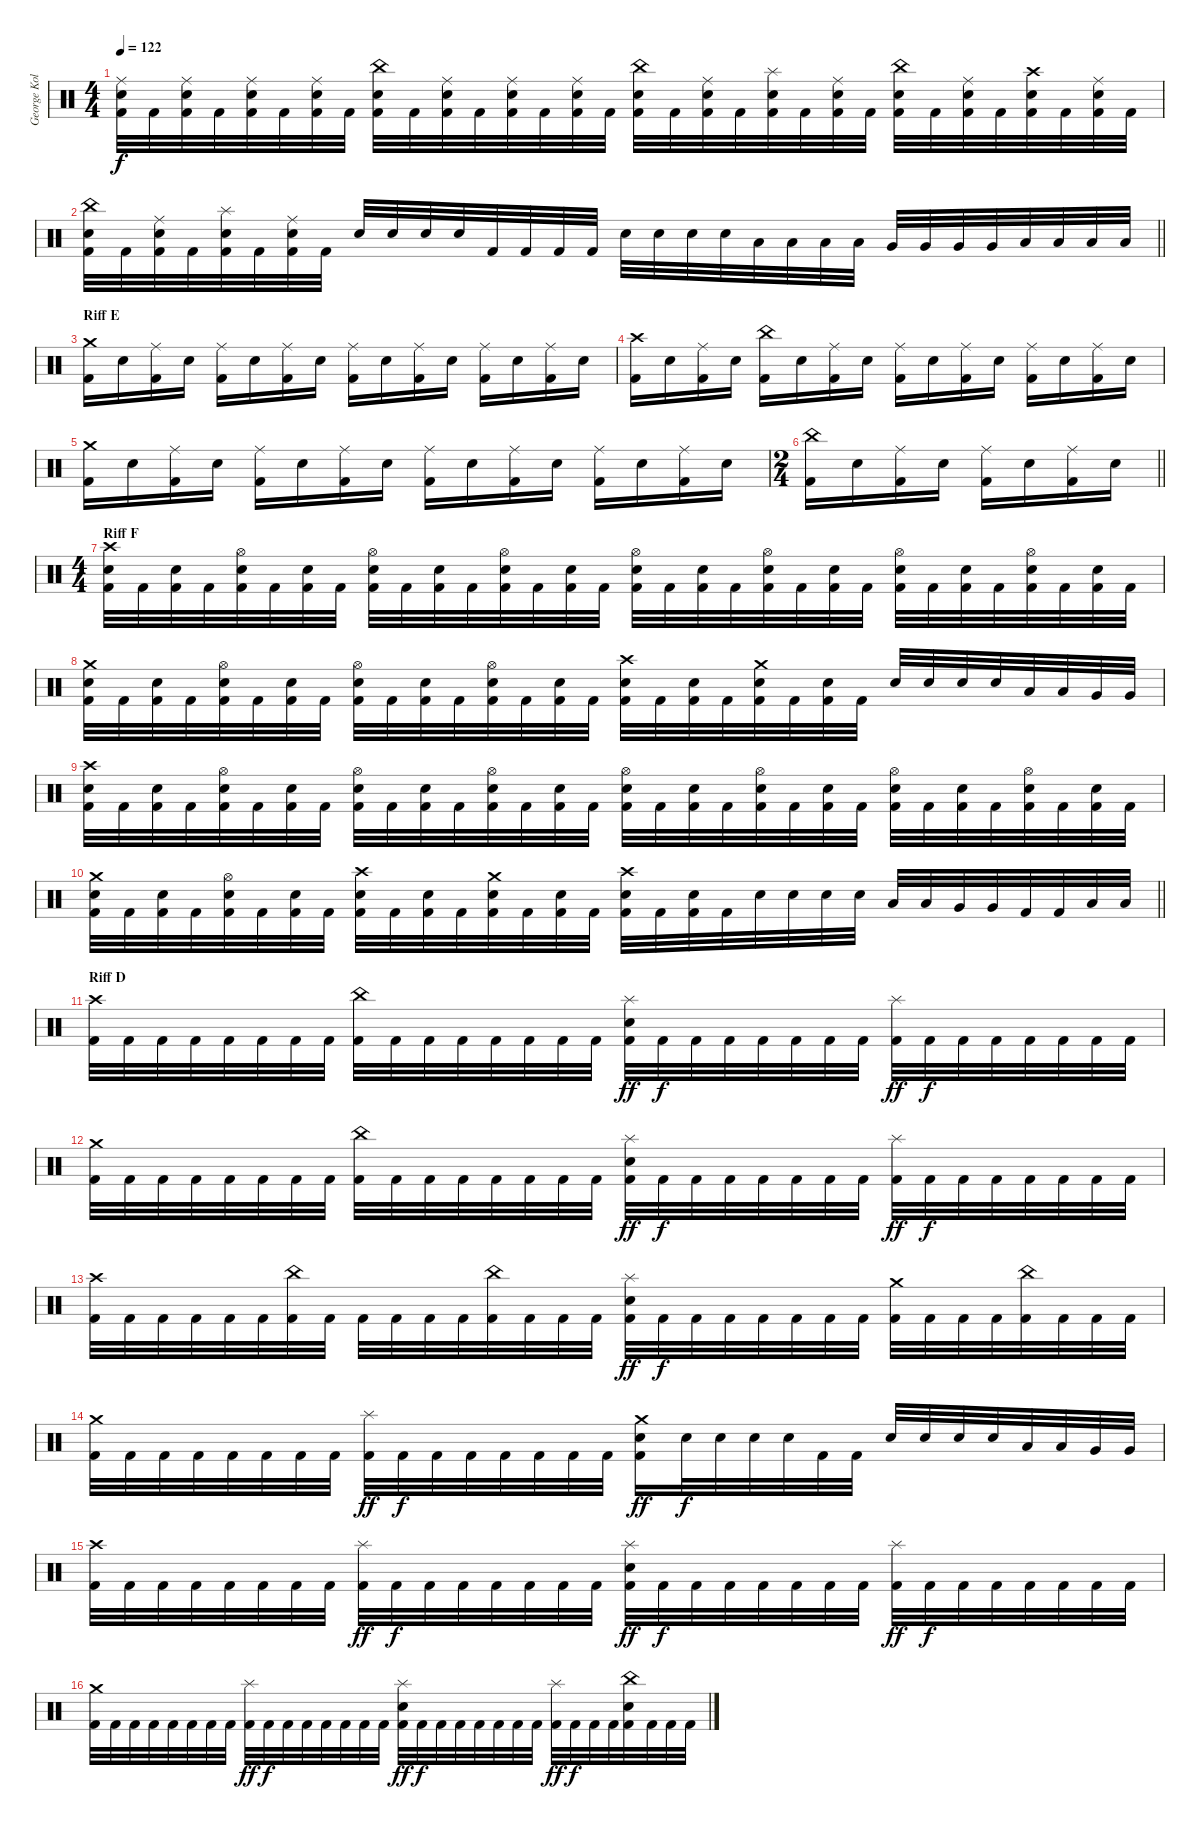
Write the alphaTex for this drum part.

\track ("George Kollias" "George Kol") {instrument percussion}
\staff {score}
\articulation defaults
\ts (4 4)
\tempo 122
\clef neutral
\ks c
("Ride (middle)" "Snare (hit) 2" "Kick (hit) 2").32{dy f} "Kick (hit) 2".32 ("Ride (middle)" "Snare (hit) 2" "Kick (hit) 2").32 "Kick (hit) 2".32 ("Ride (middle)" "Snare (hit) 2" "Kick (hit) 2").32 "Kick (hit) 2".32 ("Ride (middle)" "Snare (hit) 2" "Kick (hit) 2").32 "Kick (hit) 2".32 ("China (hit)" "Snare (hit) 2" "Kick (hit) 2").32 "Kick (hit) 2".32 ("Ride (middle)" "Snare (hit) 2" "Kick (hit) 2").32 "Kick (hit) 2".32 ("Ride (middle)" "Snare (hit) 2" "Kick (hit) 2").32 "Kick (hit) 2".32 ("Ride (middle)" "Snare (hit) 2" "Kick (hit) 2").32 "Kick (hit) 2".32 ("China (hit)" "Snare (hit) 2" "Kick (hit) 2").32 "Kick (hit) 2".32 ("Ride (middle)" "Snare (hit) 2" "Kick (hit) 2").32 "Kick (hit) 2".32 ("Splash (hit)" "Snare (hit) 2" "Kick (hit) 2").32 "Kick (hit) 2".32 ("Ride (middle)" "Snare (hit) 2" "Kick (hit) 2").32 "Kick (hit) 2".32 ("China (hit)" "Snare (hit) 2" "Kick (hit) 2").32 "Kick (hit) 2".32 ("Ride (middle)" "Snare (hit) 2" "Kick (hit) 2").32 "Kick (hit) 2".32 ("Crash high (hit)" "Snare (hit) 2" "Kick (hit) 2").32 "Kick (hit) 2".32 ("Ride (middle)" "Snare (hit) 2" "Kick (hit) 2").32 "Kick (hit) 2".32 |
\barLineRight lightlight
("China (hit)" "Snare (hit) 2" "Kick (hit) 2").32 "Kick (hit) 2".32 ("Ride (middle)" "Snare (hit) 2" "Kick (hit) 2").32 "Kick (hit) 2".32 ("Splash (hit)" "Snare (hit) 2" "Kick (hit) 2").32 "Kick (hit) 2".32 ("Ride (middle)" "Snare (hit) 2" "Kick (hit) 2").32 "Kick (hit) 2".32 "Snare (hit) 2".32 "Snare (hit) 2".32 "Snare (hit) 2".32 "Snare (hit) 2".32 "Kick (hit) 2".32 "Kick (hit) 2".32 "Kick (hit) 2".32 "Kick (hit) 2".32 "Snare (hit) 2".32 "Snare (hit) 2".32 "Snare (hit) 2".32 "Snare (hit) 2".32 "Low Tom (hit)".32 "Low Tom (hit)".32 "Low Tom (hit)".32 "Low Tom (hit)".32 "Very Low Tom (hit)".32 "Very Low Tom (hit)".32 "Very Low Tom (hit)".32 "Very Low Tom (hit)".32 "Low Floor Tom (hit)".32 "Low Floor Tom (hit)".32 "Low Floor Tom (hit)".32 "Low Floor Tom (hit)".32 |
\section ("" "Riff E")
("Crash medium (hit)" "Kick (hit) 2").16 "Snare (hit) 2".16 ("Ride (middle)" "Kick (hit) 2").16 "Snare (hit) 2".16 ("Ride (middle)" "Kick (hit) 2").16 "Snare (hit) 2".16 ("Ride (middle)" "Kick (hit) 2").16 "Snare (hit) 2".16 ("Ride (middle)" "Kick (hit) 2").16 "Snare (hit) 2".16 ("Ride (middle)" "Kick (hit) 2").16 "Snare (hit) 2".16 ("Ride (middle)" "Kick (hit) 2").16 "Snare (hit) 2".16 ("Ride (middle)" "Kick (hit) 2").16 "Snare (hit) 2".16 |
("Crash high (hit)" "Kick (hit) 2").16 "Snare (hit) 2".16 ("Ride (middle)" "Kick (hit) 2").16 "Snare (hit) 2".16 ("China (hit)" "Kick (hit) 2").16 "Snare (hit) 2".16 ("Ride (middle)" "Kick (hit) 2").16 "Snare (hit) 2".16 ("Ride (middle)" "Kick (hit) 2").16 "Snare (hit) 2".16 ("Ride (middle)" "Kick (hit) 2").16 "Snare (hit) 2".16 ("Ride (middle)" "Kick (hit) 2").16 "Snare (hit) 2".16 ("Ride (middle)" "Kick (hit) 2").16 "Snare (hit) 2".16 |
("Crash medium (hit)" "Kick (hit) 2").16 "Snare (hit) 2".16 ("Ride (middle)" "Kick (hit) 2").16 "Snare (hit) 2".16 ("Ride (middle)" "Kick (hit) 2").16 "Snare (hit) 2".16 ("Ride (middle)" "Kick (hit) 2").16 "Snare (hit) 2".16 ("Ride (middle)" "Kick (hit) 2").16 "Snare (hit) 2".16 ("Ride (middle)" "Kick (hit) 2").16 "Snare (hit) 2".16 ("Ride (middle)" "Kick (hit) 2").16 "Snare (hit) 2".16 ("Ride (middle)" "Kick (hit) 2").16 "Snare (hit) 2".16 |
\ts (2 4)
\barLineRight lightlight
("China (hit)" "Kick (hit) 2").16 "Snare (hit) 2".16 ("Ride (middle)" "Kick (hit) 2").16 "Snare (hit) 2".16 ("Ride (middle)" "Kick (hit) 2").16 "Snare (hit) 2".16 ("Ride (middle)" "Kick (hit) 2").16 "Snare (hit) 2".16 |
\ts (4 4)
\section ("" "Riff F")
("Crash high (hit)" "Snare (hit) 2" "Kick (hit) 2").32 "Kick (hit) 2".32 ("Snare (hit) 2" "Kick (hit) 2").32 "Kick (hit) 2".32 ("Hi-Hat (open)" "Snare (hit) 2" "Kick (hit) 2").32 "Kick (hit) 2".32 ("Snare (hit) 2" "Kick (hit) 2").32 "Kick (hit) 2".32 ("Hi-Hat (open)" "Snare (hit) 2" "Kick (hit) 2").32 "Kick (hit) 2".32 ("Snare (hit) 2" "Kick (hit) 2").32 "Kick (hit) 2".32 ("Hi-Hat (open)" "Snare (hit) 2" "Kick (hit) 2").32 "Kick (hit) 2".32 ("Snare (hit) 2" "Kick (hit) 2").32 "Kick (hit) 2".32 ("Hi-Hat (open)" "Snare (hit) 2" "Kick (hit) 2").32 "Kick (hit) 2".32 ("Snare (hit) 2" "Kick (hit) 2").32 "Kick (hit) 2".32 ("Hi-Hat (open)" "Snare (hit) 2" "Kick (hit) 2").32 "Kick (hit) 2".32 ("Snare (hit) 2" "Kick (hit) 2").32 "Kick (hit) 2".32 ("Hi-Hat (open)" "Snare (hit) 2" "Kick (hit) 2").32 "Kick (hit) 2".32 ("Snare (hit) 2" "Kick (hit) 2").32 "Kick (hit) 2".32 ("Hi-Hat (open)" "Snare (hit) 2" "Kick (hit) 2").32 "Kick (hit) 2".32 ("Snare (hit) 2" "Kick (hit) 2").32 "Kick (hit) 2".32 |
("Crash medium (hit)" "Snare (hit) 2" "Kick (hit) 2").32 "Kick (hit) 2".32 ("Snare (hit) 2" "Kick (hit) 2").32 "Kick (hit) 2".32 ("Hi-Hat (open)" "Snare (hit) 2" "Kick (hit) 2").32 "Kick (hit) 2".32 ("Snare (hit) 2" "Kick (hit) 2").32 "Kick (hit) 2".32 ("Hi-Hat (open)" "Snare (hit) 2" "Kick (hit) 2").32 "Kick (hit) 2".32 ("Snare (hit) 2" "Kick (hit) 2").32 "Kick (hit) 2".32 ("Hi-Hat (open)" "Snare (hit) 2" "Kick (hit) 2").32 "Kick (hit) 2".32 ("Snare (hit) 2" "Kick (hit) 2").32 "Kick (hit) 2".32 ("Crash high (hit)" "Snare (hit) 2" "Kick (hit) 2").32 "Kick (hit) 2".32 ("Snare (hit) 2" "Kick (hit) 2").32 "Kick (hit) 2".32 ("Crash medium (hit)" "Snare (hit) 2" "Kick (hit) 2").32 "Kick (hit) 2".32 ("Snare (hit) 2" "Kick (hit) 2").32 "Kick (hit) 2".32 "Snare (hit) 2".32 "Snare (hit) 2".32 "Snare (hit) 2".32 "Snare (hit) 2".32 "Low Tom (hit)".32 "Low Tom (hit)".32 "Very Low Tom (hit)".32 "Very Low Tom (hit)".32 |
("Crash high (hit)" "Snare (hit) 2" "Kick (hit) 2").32 "Kick (hit) 2".32 ("Snare (hit) 2" "Kick (hit) 2").32 "Kick (hit) 2".32 ("Hi-Hat (open)" "Snare (hit) 2" "Kick (hit) 2").32 "Kick (hit) 2".32 ("Snare (hit) 2" "Kick (hit) 2").32 "Kick (hit) 2".32 ("Hi-Hat (open)" "Snare (hit) 2" "Kick (hit) 2").32 "Kick (hit) 2".32 ("Snare (hit) 2" "Kick (hit) 2").32 "Kick (hit) 2".32 ("Hi-Hat (open)" "Snare (hit) 2" "Kick (hit) 2").32 "Kick (hit) 2".32 ("Snare (hit) 2" "Kick (hit) 2").32 "Kick (hit) 2".32 ("Hi-Hat (open)" "Snare (hit) 2" "Kick (hit) 2").32 "Kick (hit) 2".32 ("Snare (hit) 2" "Kick (hit) 2").32 "Kick (hit) 2".32 ("Hi-Hat (open)" "Snare (hit) 2" "Kick (hit) 2").32 "Kick (hit) 2".32 ("Snare (hit) 2" "Kick (hit) 2").32 "Kick (hit) 2".32 ("Hi-Hat (open)" "Snare (hit) 2" "Kick (hit) 2").32 "Kick (hit) 2".32 ("Snare (hit) 2" "Kick (hit) 2").32 "Kick (hit) 2".32 ("Hi-Hat (open)" "Snare (hit) 2" "Kick (hit) 2").32 "Kick (hit) 2".32 ("Snare (hit) 2" "Kick (hit) 2").32 "Kick (hit) 2".32 |
\barLineRight lightlight
("Crash medium (hit)" "Snare (hit) 2" "Kick (hit) 2").32 "Kick (hit) 2".32 ("Snare (hit) 2" "Kick (hit) 2").32 "Kick (hit) 2".32 ("Hi-Hat (open)" "Snare (hit) 2" "Kick (hit) 2").32 "Kick (hit) 2".32 ("Snare (hit) 2" "Kick (hit) 2").32 "Kick (hit) 2".32 ("Crash high (hit)" "Snare (hit) 2" "Kick (hit) 2").32 "Kick (hit) 2".32 ("Snare (hit) 2" "Kick (hit) 2").32 "Kick (hit) 2".32 ("Crash medium (hit)" "Snare (hit) 2" "Kick (hit) 2").32 "Kick (hit) 2".32 ("Snare (hit) 2" "Kick (hit) 2").32 "Kick (hit) 2".32 ("Crash high (hit)" "Snare (hit) 2" "Kick (hit) 2").32 "Kick (hit) 2".32 ("Snare (hit) 2" "Kick (hit) 2").32 "Kick (hit) 2".32 "Snare (hit) 2".32 "Snare (hit) 2".32 "Snare (hit) 2".32 "Snare (hit) 2".32 "Low Tom (hit)".32 "Low Tom (hit)".32 "Very Low Tom (hit)".32 "Very Low Tom (hit)".32 "Kick (hit) 2".32 "Kick (hit) 2".32 "Low Floor Tom (hit)".32 "Low Floor Tom (hit)".32 |
\section ("" "Riff D")
("Crash high (hit)" "Kick (hit) 2").32 "Kick (hit) 2".32 "Kick (hit) 2".32 "Kick (hit) 2".32 "Kick (hit) 2".32 "Kick (hit) 2".32 "Kick (hit) 2".32 "Kick (hit) 2".32 ("China (hit)" "Kick (hit) 2").32 "Kick (hit) 2".32 "Kick (hit) 2".32 "Kick (hit) 2".32 "Kick (hit) 2".32 "Kick (hit) 2".32 "Kick (hit) 2".32 "Kick (hit) 2".32 ("Splash (hit)" "Snare (hit) 2" "Kick (hit) 2").32{dy ff} "Kick (hit) 2".32{dy f} "Kick (hit) 2".32 "Kick (hit) 2".32 "Kick (hit) 2".32 "Kick (hit) 2".32 "Kick (hit) 2".32 "Kick (hit) 2".32 ("Splash (hit)" "Kick (hit) 2").32{dy ff} "Kick (hit) 2".32{dy f} "Kick (hit) 2".32 "Kick (hit) 2".32 "Kick (hit) 2".32 "Kick (hit) 2".32 "Kick (hit) 2".32 "Kick (hit) 2".32 |
("Crash medium (hit)" "Kick (hit) 2").32 "Kick (hit) 2".32 "Kick (hit) 2".32 "Kick (hit) 2".32 "Kick (hit) 2".32 "Kick (hit) 2".32 "Kick (hit) 2".32 "Kick (hit) 2".32 ("China (hit)" "Kick (hit) 2").32 "Kick (hit) 2".32 "Kick (hit) 2".32 "Kick (hit) 2".32 "Kick (hit) 2".32 "Kick (hit) 2".32 "Kick (hit) 2".32 "Kick (hit) 2".32 ("Splash (hit)" "Snare (hit) 2" "Kick (hit) 2").32{dy ff} "Kick (hit) 2".32{dy f} "Kick (hit) 2".32 "Kick (hit) 2".32 "Kick (hit) 2".32 "Kick (hit) 2".32 "Kick (hit) 2".32 "Kick (hit) 2".32 ("Splash (hit)" "Kick (hit) 2").32{dy ff} "Kick (hit) 2".32{dy f} "Kick (hit) 2".32 "Kick (hit) 2".32 "Kick (hit) 2".32 "Kick (hit) 2".32 "Kick (hit) 2".32 "Kick (hit) 2".32 |
("Crash high (hit)" "Kick (hit) 2").32 "Kick (hit) 2".32 "Kick (hit) 2".32 "Kick (hit) 2".32 "Kick (hit) 2".32 "Kick (hit) 2".32 ("China (hit)" "Kick (hit) 2").32 "Kick (hit) 2".32 "Kick (hit) 2".32 "Kick (hit) 2".32 "Kick (hit) 2".32 "Kick (hit) 2".32 ("China (hit)" "Kick (hit) 2").32 "Kick (hit) 2".32 "Kick (hit) 2".32 "Kick (hit) 2".32 ("Splash (hit)" "Snare (hit) 2" "Kick (hit) 2").32{dy ff} "Kick (hit) 2".32{dy f} "Kick (hit) 2".32 "Kick (hit) 2".32 "Kick (hit) 2".32 "Kick (hit) 2".32 "Kick (hit) 2".32 "Kick (hit) 2".32 ("Crash medium (hit)" "Kick (hit) 2").32 "Kick (hit) 2".32 "Kick (hit) 2".32 "Kick (hit) 2".32 ("China (hit)" "Kick (hit) 2").32 "Kick (hit) 2".32 "Kick (hit) 2".32 "Kick (hit) 2".32 |
("Crash medium (hit)" "Kick (hit) 2").32 "Kick (hit) 2".32 "Kick (hit) 2".32 "Kick (hit) 2".32 "Kick (hit) 2".32 "Kick (hit) 2".32 "Kick (hit) 2".32 "Kick (hit) 2".32 ("Splash (hit)" "Kick (hit) 2").32{dy ff} "Kick (hit) 2".32{dy f} "Kick (hit) 2".32 "Kick (hit) 2".32 "Kick (hit) 2".32 "Kick (hit) 2".32 "Kick (hit) 2".32 "Kick (hit) 2".32 ("Crash medium (hit)" "Snare (hit) 2" "Kick (hit) 2").16{dy ff} "Snare (hit) 2".32{dy f} "Snare (hit) 2".32 "Snare (hit) 2".32 "Snare (hit) 2".32 "Kick (hit) 2".32 "Kick (hit) 2".32 "Snare (hit) 2".32 "Snare (hit) 2".32 "Snare (hit) 2".32 "Snare (hit) 2".32 "Low Tom (hit)".32 "Low Tom (hit)".32 "Very Low Tom (hit)".32 "Very Low Tom (hit)".32 |
("Crash high (hit)" "Kick (hit) 2").32 "Kick (hit) 2".32 "Kick (hit) 2".32 "Kick (hit) 2".32 "Kick (hit) 2".32 "Kick (hit) 2".32 "Kick (hit) 2".32 "Kick (hit) 2".32 ("Splash (hit)" "Kick (hit) 2").32{dy ff} "Kick (hit) 2".32{dy f} "Kick (hit) 2".32 "Kick (hit) 2".32 "Kick (hit) 2".32 "Kick (hit) 2".32 "Kick (hit) 2".32 "Kick (hit) 2".32 ("Splash (hit)" "Snare (hit) 2" "Kick (hit) 2").32{dy ff} "Kick (hit) 2".32{dy f} "Kick (hit) 2".32 "Kick (hit) 2".32 "Kick (hit) 2".32 "Kick (hit) 2".32 "Kick (hit) 2".32 "Kick (hit) 2".32 ("Splash (hit)" "Kick (hit) 2").32{dy ff} "Kick (hit) 2".32{dy f} "Kick (hit) 2".32 "Kick (hit) 2".32 "Kick (hit) 2".32 "Kick (hit) 2".32 "Kick (hit) 2".32 "Kick (hit) 2".32 |
("Crash medium (hit)" "Kick (hit) 2").32 "Kick (hit) 2".32 "Kick (hit) 2".32 "Kick (hit) 2".32 "Kick (hit) 2".32 "Kick (hit) 2".32 "Kick (hit) 2".32 "Kick (hit) 2".32 ("Splash (hit)" "Kick (hit) 2").32{dy ff} "Kick (hit) 2".32{dy f} "Kick (hit) 2".32 "Kick (hit) 2".32 "Kick (hit) 2".32 "Kick (hit) 2".32 "Kick (hit) 2".32 "Kick (hit) 2".32 ("Splash (hit)" "Snare (hit) 2" "Kick (hit) 2").32{dy ff} "Kick (hit) 2".32{dy f} "Kick (hit) 2".32 "Kick (hit) 2".32 "Kick (hit) 2".32 "Kick (hit) 2".32 "Kick (hit) 2".32 "Kick (hit) 2".32 ("Splash (hit)" "Kick (hit) 2").32{dy ff} "Kick (hit) 2".32{dy f} "Kick (hit) 2".32 "Kick (hit) 2".32 ("China (hit)" "Snare (hit) 2" "Kick (hit) 2").32 "Kick (hit) 2".32 "Kick (hit) 2".32 "Kick (hit) 2".32
